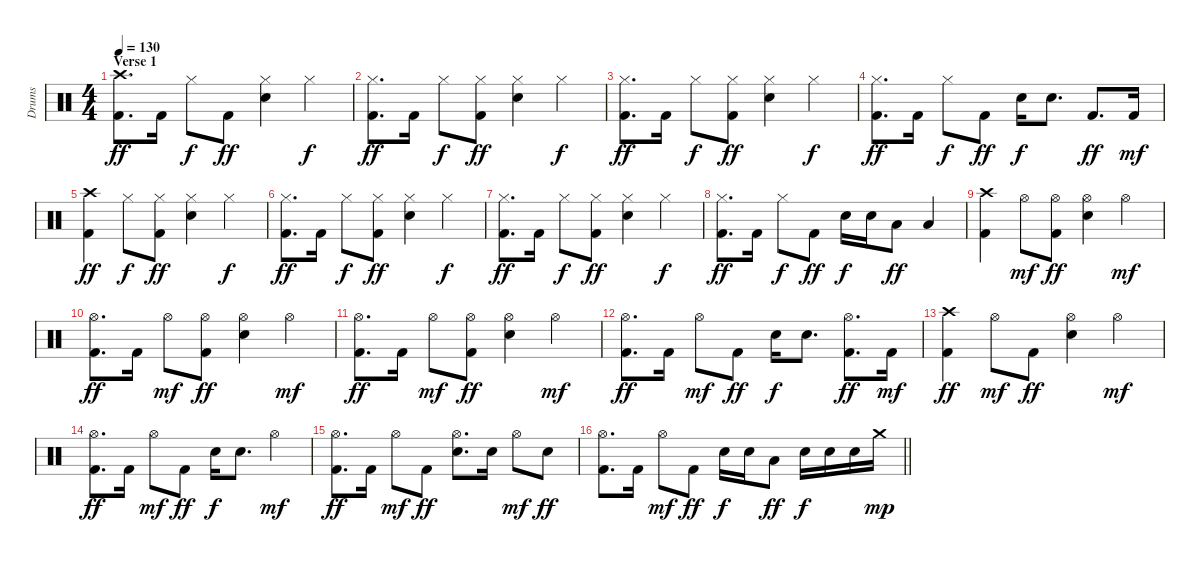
\track ("Drums" "Drums") {instrument percussion}
\staff {score}
\articulation defaults
\ts (4 4)
\section ("" "Verse 1")
\tempo 130
\clef neutral
\ks c
("Crash high (hit)" "Kick (hit) 2").8{d dy ff} "Kick (hit) 2".16 "Hi-Hat (closed)".8{dy f} "Kick (hit) 2".8{dy ff} ("Hi-Hat (closed)" "Electric Snare (hit)").4 "Hi-Hat (closed)".4{dy f} |
("Hi-Hat (closed)" "Kick (hit) 2").8{d dy ff} "Kick (hit) 2".16 "Hi-Hat (closed)".8{dy f} ("Hi-Hat (closed)" "Kick (hit) 2").8{dy ff} ("Hi-Hat (closed)" "Electric Snare (hit)").4 "Hi-Hat (closed)".4{dy f} |
("Hi-Hat (closed)" "Kick (hit) 2").8{d dy ff} "Kick (hit) 2".16 "Hi-Hat (closed)".8{dy f} ("Hi-Hat (closed)" "Kick (hit) 2").8{dy ff} ("Hi-Hat (closed)" "Electric Snare (hit)").4 "Hi-Hat (closed)".4{dy f} |
("Hi-Hat (closed)" "Kick (hit) 2").8{d dy ff} "Kick (hit) 2".16 "Hi-Hat (closed)".8{dy f} "Kick (hit) 2".8{dy ff} "Electric Snare (hit)".16{dy f} "Electric Snare (hit)".8{d} "Kick (hit) 2".8{d dy ff} "Kick (hit) 2".16{dy mf} |
("Crash high (hit)" "Kick (hit) 2").4{dy ff} "Hi-Hat (closed)".8{dy f} ("Hi-Hat (closed)" "Kick (hit) 2").8{dy ff} ("Hi-Hat (closed)" "Electric Snare (hit)").4 "Hi-Hat (closed)".4{dy f} |
("Hi-Hat (closed)" "Kick (hit) 2").8{d dy ff} "Kick (hit) 2".16 "Hi-Hat (closed)".8{dy f} ("Hi-Hat (closed)" "Kick (hit) 2").8{dy ff} ("Hi-Hat (closed)" "Electric Snare (hit)").4 "Hi-Hat (closed)".4{dy f} |
("Hi-Hat (closed)" "Kick (hit) 2").8{d dy ff} "Kick (hit) 2".16 "Hi-Hat (closed)".8{dy f} ("Hi-Hat (closed)" "Kick (hit) 2").8{dy ff} ("Hi-Hat (closed)" "Electric Snare (hit)").4 "Hi-Hat (closed)".4{dy f} |
("Hi-Hat (closed)" "Kick (hit) 2").8{d dy ff} "Kick (hit) 2".16 "Hi-Hat (closed)".8{dy f} "Kick (hit) 2".8{dy ff} "Electric Snare (hit)".16{dy f} "Electric Snare (hit)".16 "Low Tom (hit)".8{dy ff} "Low Tom (hit)".4 |
("Crash high (hit)" "Kick (hit) 2").4 "Hi-Hat (open)".8{dy mf} ("Hi-Hat (open)" "Kick (hit) 2").8{dy ff} ("Hi-Hat (open)" "Electric Snare (hit)").4 "Hi-Hat (open)".4{dy mf} |
("Hi-Hat (open)" "Kick (hit) 2").8{d dy ff} "Kick (hit) 2".16 "Hi-Hat (open)".8{dy mf} ("Hi-Hat (open)" "Kick (hit) 2").8{dy ff} ("Hi-Hat (open)" "Electric Snare (hit)").4 "Hi-Hat (open)".4{dy mf} |
("Hi-Hat (open)" "Kick (hit) 2").8{d dy ff} "Kick (hit) 2".16 "Hi-Hat (open)".8{dy mf} ("Hi-Hat (open)" "Kick (hit) 2").8{dy ff} ("Hi-Hat (open)" "Electric Snare (hit)").4 "Hi-Hat (open)".4{dy mf} |
("Hi-Hat (open)" "Kick (hit) 2").8{d dy ff} "Kick (hit) 2".16 "Hi-Hat (open)".8{dy mf} "Kick (hit) 2".8{dy ff} "Electric Snare (hit)".16{dy f} "Electric Snare (hit)".8{d} ("Hi-Hat (open)" "Kick (hit) 2").8{d dy ff} "Kick (hit) 2".16{dy mf} |
("Crash high (hit)" "Kick (hit) 2").4{dy ff} "Hi-Hat (open)".8{dy mf} "Kick (hit) 2".8{dy ff} ("Hi-Hat (open)" "Electric Snare (hit)").4 "Hi-Hat (open)".4{dy mf} |
("Hi-Hat (open)" "Kick (hit) 2").8{d dy ff} "Kick (hit) 2".16 "Hi-Hat (open)".8{dy mf} "Kick (hit) 2".8{dy ff} "Electric Snare (hit)".16{dy f} "Electric Snare (hit)".8{d} "Hi-Hat (open)".4{dy mf} |
("Hi-Hat (open)" "Kick (hit) 2").8{d dy ff} "Kick (hit) 2".16 "Hi-Hat (open)".8{dy mf} "Kick (hit) 2".8{dy ff} ("Hi-Hat (open)" "Electric Snare (hit)").8{d} "Electric Snare (hit)".16 "Hi-Hat (open)".8{dy mf} "Electric Snare (hit)".8{dy ff} |
\barLineRight lightlight
("Hi-Hat (open)" "Kick (hit) 2").8{d} "Kick (hit) 2".16 "Hi-Hat (open)".8{dy mf} "Kick (hit) 2".8{dy ff} "Electric Snare (hit)".16{dy f} "Electric Snare (hit)".16 "Low Tom (hit)".8{dy ff} "Electric Snare (hit)".16{dy f} "Electric Snare (hit)".16 "Electric Snare (hit)".16 "Crash medium (hit)".16{dy mp}
